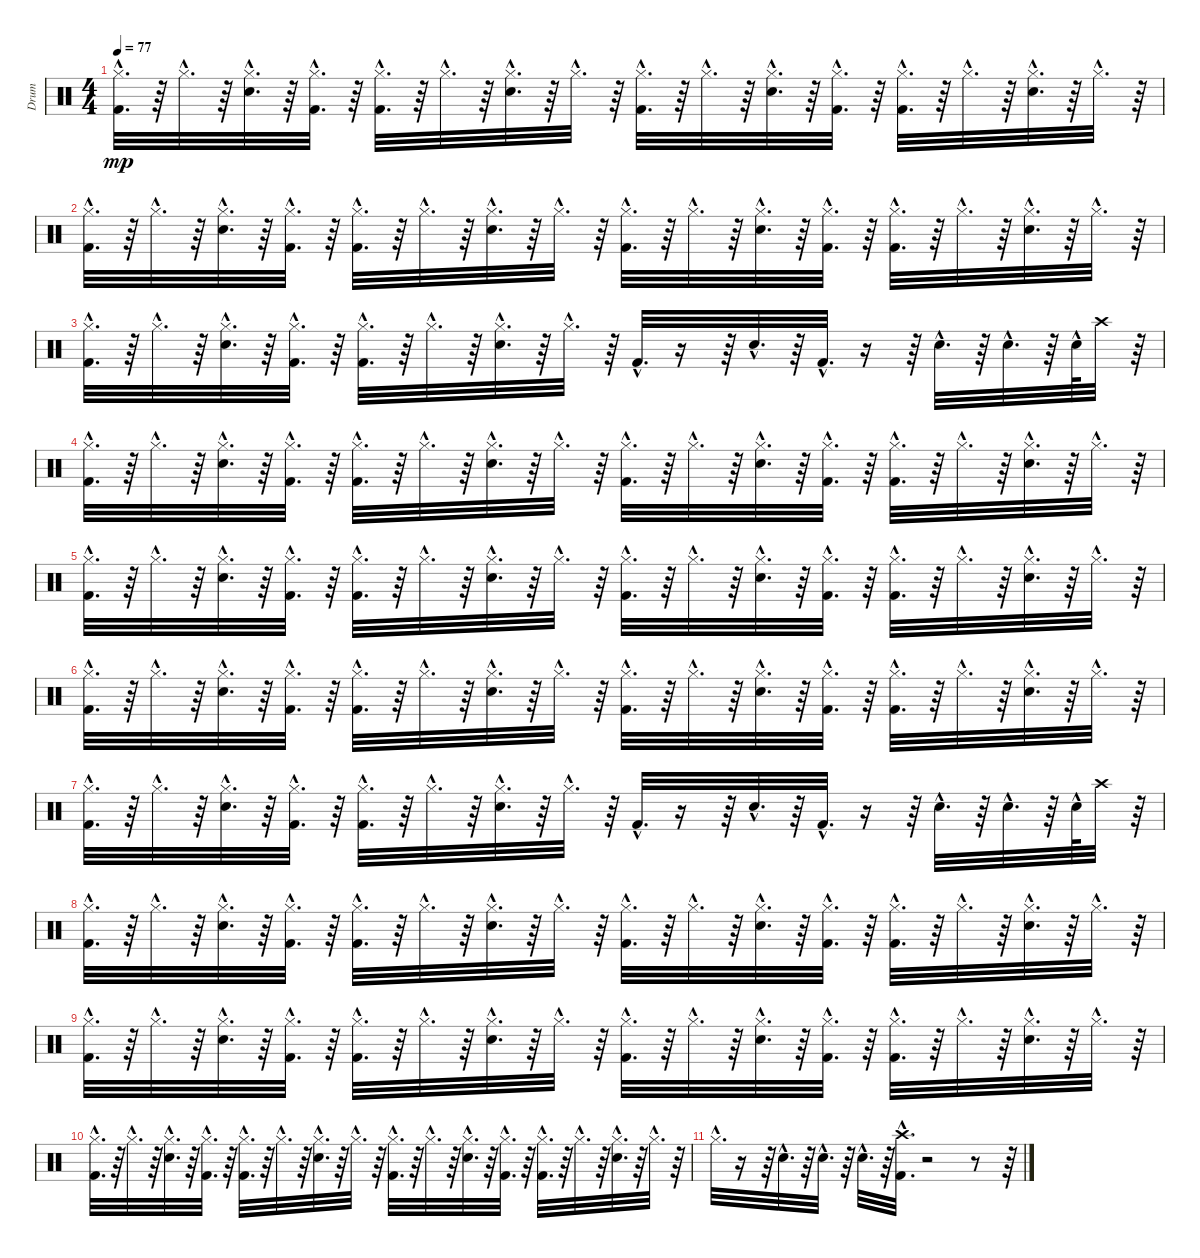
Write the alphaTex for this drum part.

\track ("Drum" "Drum") {instrument percussion}
\staff {score}
\articulation defaults
\ts (4 4)
\tempo 77
\clef neutral
\ks c
("Kick (hit) 2"{hac} "Hi-Hat (closed)"{hac}).32{d dy mp} r.64 "Hi-Hat (closed)"{hac}.32{d} r.64 ("Hi-Hat (closed)"{hac} "Snare (hit) 2"{hac}).32{d} r.64 ("Kick (hit) 2"{hac} "Hi-Hat (closed)"{hac}).32{d} r.64 ("Hi-Hat (closed)"{hac} "Kick (hit) 2"{hac}).32{d} r.64 "Hi-Hat (closed)"{hac}.32{d} r.64 ("Hi-Hat (closed)"{hac} "Snare (hit) 2"{hac}).32{d} r.64 "Hi-Hat (closed)"{hac}.32{d} r.64 ("Hi-Hat (closed)"{hac} "Kick (hit) 2"{hac}).32{d} r.64 "Hi-Hat (closed)"{hac}.32{d} r.64 ("Snare (hit) 2"{hac} "Hi-Hat (closed)"{hac}).32{d} r.64 ("Kick (hit) 2"{hac} "Hi-Hat (closed)"{hac}).32{d} r.64 ("Kick (hit) 2"{hac} "Hi-Hat (closed)"{hac}).32{d} r.64 "Hi-Hat (closed)"{hac}.32{d} r.64 ("Snare (hit) 2"{hac} "Hi-Hat (closed)"{hac}).32{d} r.64 "Hi-Hat (closed)"{hac}.32{d} r.64 |
("Hi-Hat (closed)"{hac} "Kick (hit) 2"{hac}).32{d} r.64 "Hi-Hat (closed)"{hac}.32{d} r.64 ("Hi-Hat (closed)"{hac} "Snare (hit) 2"{hac}).32{d} r.64 ("Kick (hit) 2"{hac} "Hi-Hat (closed)"{hac}).32{d} r.64 ("Hi-Hat (closed)"{hac} "Kick (hit) 2"{hac}).32{d} r.64 "Hi-Hat (closed)"{hac}.32{d} r.64 ("Hi-Hat (closed)"{hac} "Snare (hit) 2"{hac}).32{d} r.64 "Hi-Hat (closed)"{hac}.32{d} r.64 ("Hi-Hat (closed)"{hac} "Kick (hit) 2"{hac}).32{d} r.64 "Hi-Hat (closed)"{hac}.32{d} r.64 ("Snare (hit) 2"{hac} "Hi-Hat (closed)"{hac}).32{d} r.64 ("Hi-Hat (closed)"{hac} "Kick (hit) 2"{hac}).32{d} r.64 ("Hi-Hat (closed)"{hac} "Kick (hit) 2"{hac}).32{d} r.64 "Hi-Hat (closed)"{hac}.32{d} r.64 ("Hi-Hat (closed)"{hac} "Snare (hit) 2"{hac}).32{d} r.64 "Hi-Hat (closed)"{hac}.32{d} r.64 |
("Kick (hit) 2"{hac} "Hi-Hat (closed)"{hac}).32{d} r.64 "Hi-Hat (closed)"{hac}.32{d} r.64 ("Hi-Hat (closed)"{hac} "Snare (hit) 2"{hac}).32{d} r.64 ("Kick (hit) 2"{hac} "Hi-Hat (closed)"{hac}).32{d} r.64 ("Kick (hit) 2"{hac} "Hi-Hat (closed)"{hac}).32{d} r.64 "Hi-Hat (closed)"{hac}.32{d} r.64 ("Hi-Hat (closed)"{hac} "Snare (hit) 2"{hac}).32{d} r.64 "Hi-Hat (closed)"{hac}.32{d} r.64 "Kick (hit) 2"{hac}.32{d} r.16 r.64 "Snare (hit) 2"{hac}.32{d} r.64 "Kick (hit) 2"{hac}.32{d} r.16 r.64 "Snare (hit) 2"{hac}.32{d} r.64 "Snare (hit) 2"{hac}.32{d} r.64 "Snare (hit) 2"{hac}.64 "Crash high (hit)".32 r.64 |
("Kick (hit) 2"{hac} "Hi-Hat (closed)"{hac}).32{d} r.64 "Hi-Hat (closed)"{hac}.32{d} r.64 ("Snare (hit) 2"{hac} "Hi-Hat (closed)"{hac}).32{d} r.64 ("Hi-Hat (closed)"{hac} "Kick (hit) 2"{hac}).32{d} r.64 ("Kick (hit) 2"{hac} "Hi-Hat (closed)"{hac}).32{d} r.64 "Hi-Hat (closed)"{hac}.32{d} r.64 ("Hi-Hat (closed)"{hac} "Snare (hit) 2"{hac}).32{d} r.64 "Hi-Hat (closed)"{hac}.32{d} r.64 ("Kick (hit) 2"{hac} "Hi-Hat (closed)"{hac}).32{d} r.64 "Hi-Hat (closed)"{hac}.32{d} r.64 ("Hi-Hat (closed)"{hac} "Snare (hit) 2"{hac}).32{d} r.64 ("Hi-Hat (closed)"{hac} "Kick (hit) 2"{hac}).32{d} r.64 ("Hi-Hat (closed)"{hac} "Kick (hit) 2"{hac}).32{d} r.64 "Hi-Hat (closed)"{hac}.32{d} r.64 ("Snare (hit) 2"{hac} "Hi-Hat (closed)"{hac}).32{d} r.64 "Hi-Hat (closed)"{hac}.32{d} r.64 |
("Kick (hit) 2"{hac} "Hi-Hat (closed)"{hac}).32{d} r.64 "Hi-Hat (closed)"{hac}.32{d} r.64 ("Snare (hit) 2"{hac} "Hi-Hat (closed)"{hac}).32{d} r.64 ("Hi-Hat (closed)"{hac} "Kick (hit) 2"{hac}).32{d} r.64 ("Kick (hit) 2"{hac} "Hi-Hat (closed)"{hac}).32{d} r.64 "Hi-Hat (closed)"{hac}.32{d} r.64 ("Hi-Hat (closed)"{hac} "Snare (hit) 2"{hac}).32{d} r.64 "Hi-Hat (closed)"{hac}.32{d} r.64 ("Kick (hit) 2"{hac} "Hi-Hat (closed)"{hac}).32{d} r.64 "Hi-Hat (closed)"{hac}.32{d} r.64 ("Hi-Hat (closed)"{hac} "Snare (hit) 2"{hac}).32{d} r.64 ("Hi-Hat (closed)"{hac} "Kick (hit) 2"{hac}).32{d} r.64 ("Kick (hit) 2"{hac} "Hi-Hat (closed)"{hac}).32{d} r.64 "Hi-Hat (closed)"{hac}.32{d} r.64 ("Hi-Hat (closed)"{hac} "Snare (hit) 2"{hac}).32{d} r.64 "Hi-Hat (closed)"{hac}.32{d} r.64 |
("Hi-Hat (closed)"{hac} "Kick (hit) 2"{hac}).32{d} r.64 "Hi-Hat (closed)"{hac}.32{d} r.64 ("Hi-Hat (closed)"{hac} "Snare (hit) 2"{hac}).32{d} r.64 ("Kick (hit) 2"{hac} "Hi-Hat (closed)"{hac}).32{d} r.64 ("Hi-Hat (closed)"{hac} "Kick (hit) 2"{hac}).32{d} r.64 "Hi-Hat (closed)"{hac}.32{d} r.64 ("Snare (hit) 2"{hac} "Hi-Hat (closed)"{hac}).32{d} r.64 "Hi-Hat (closed)"{hac}.32{d} r.64 ("Kick (hit) 2"{hac} "Hi-Hat (closed)"{hac}).32{d} r.64 "Hi-Hat (closed)"{hac}.32{d} r.64 ("Snare (hit) 2"{hac} "Hi-Hat (closed)"{hac}).32{d} r.64 ("Kick (hit) 2"{hac} "Hi-Hat (closed)"{hac}).32{d} r.64 ("Kick (hit) 2"{hac} "Hi-Hat (closed)"{hac}).32{d} r.64 "Hi-Hat (closed)"{hac}.32{d} r.64 ("Hi-Hat (closed)"{hac} "Snare (hit) 2"{hac}).32{d} r.64 "Hi-Hat (closed)"{hac}.32{d} r.64 |
("Hi-Hat (closed)"{hac} "Kick (hit) 2"{hac}).32{d} r.64 "Hi-Hat (closed)"{hac}.32{d} r.64 ("Hi-Hat (closed)"{hac} "Snare (hit) 2"{hac}).32{d} r.64 ("Hi-Hat (closed)"{hac} "Kick (hit) 2"{hac}).32{d} r.64 ("Hi-Hat (closed)"{hac} "Kick (hit) 2"{hac}).32{d} r.64 "Hi-Hat (closed)"{hac}.32{d} r.64 ("Hi-Hat (closed)"{hac} "Snare (hit) 2"{hac}).32{d} r.64 "Hi-Hat (closed)"{hac}.32{d} r.64 "Kick (hit) 2"{hac}.32{d} r.16 r.64 "Snare (hit) 2"{hac}.32{d} r.64 "Kick (hit) 2"{hac}.32{d} r.16 r.64 "Snare (hit) 2"{hac}.32{d} r.64 "Snare (hit) 2"{hac}.32{d} r.64 "Snare (hit) 2"{hac}.64 "Crash high (hit)".32 r.64 |
("Kick (hit) 2"{hac} "Hi-Hat (closed)"{hac}).32{d} r.64 "Hi-Hat (closed)"{hac}.32{d} r.64 ("Snare (hit) 2"{hac} "Hi-Hat (closed)"{hac}).32{d} r.64 ("Kick (hit) 2"{hac} "Hi-Hat (closed)"{hac}).32{d} r.64 ("Kick (hit) 2"{hac} "Hi-Hat (closed)"{hac}).32{d} r.64 "Hi-Hat (closed)"{hac}.32{d} r.64 ("Hi-Hat (closed)"{hac} "Snare (hit) 2"{hac}).32{d} r.64 "Hi-Hat (closed)"{hac}.32{d} r.64 ("Hi-Hat (closed)"{hac} "Kick (hit) 2"{hac}).32{d} r.64 "Hi-Hat (closed)"{hac}.32{d} r.64 ("Snare (hit) 2"{hac} "Hi-Hat (closed)"{hac}).32{d} r.64 ("Hi-Hat (closed)"{hac} "Kick (hit) 2"{hac}).32{d} r.64 ("Hi-Hat (closed)"{hac} "Kick (hit) 2"{hac}).32{d} r.64 "Hi-Hat (closed)"{hac}.32{d} r.64 ("Snare (hit) 2"{hac} "Hi-Hat (closed)"{hac}).32{d} r.64 "Hi-Hat (closed)"{hac}.32{d} r.64 |
("Hi-Hat (closed)"{hac} "Kick (hit) 2"{hac}).32{d} r.64 "Hi-Hat (closed)"{hac}.32{d} r.64 ("Hi-Hat (closed)"{hac} "Snare (hit) 2"{hac}).32{d} r.64 ("Hi-Hat (closed)"{hac} "Kick (hit) 2"{hac}).32{d} r.64 ("Kick (hit) 2"{hac} "Hi-Hat (closed)"{hac}).32{d} r.64 "Hi-Hat (closed)"{hac}.32{d} r.64 ("Hi-Hat (closed)"{hac} "Snare (hit) 2"{hac}).32{d} r.64 "Hi-Hat (closed)"{hac}.32{d} r.64 ("Hi-Hat (closed)"{hac} "Kick (hit) 2"{hac}).32{d} r.64 "Hi-Hat (closed)"{hac}.32{d} r.64 ("Snare (hit) 2"{hac} "Hi-Hat (closed)"{hac}).32{d} r.64 ("Kick (hit) 2"{hac} "Hi-Hat (closed)"{hac}).32{d} r.64 ("Hi-Hat (closed)"{hac} "Kick (hit) 2"{hac}).32{d} r.64 "Hi-Hat (closed)"{hac}.32{d} r.64 ("Hi-Hat (closed)"{hac} "Snare (hit) 2"{hac}).32{d} r.64 "Hi-Hat (closed)"{hac}.32{d} r.64 |
("Kick (hit) 2"{hac} "Hi-Hat (closed)"{hac}).32{d} r.64 "Hi-Hat (closed)"{hac}.32{d} r.64 ("Hi-Hat (closed)"{hac} "Snare (hit) 2"{hac}).32{d} r.64 ("Kick (hit) 2"{hac} "Hi-Hat (closed)"{hac}).32{d} r.64 ("Hi-Hat (closed)"{hac} "Kick (hit) 2"{hac}).32{d} r.64 "Hi-Hat (closed)"{hac}.32{d} r.64 ("Hi-Hat (closed)"{hac} "Snare (hit) 2"{hac}).32{d} r.64 "Hi-Hat (closed)"{hac}.32{d} r.64 ("Kick (hit) 2"{hac} "Hi-Hat (closed)"{hac}).32{d} r.64 "Hi-Hat (closed)"{hac}.32{d} r.64 ("Snare (hit) 2"{hac} "Hi-Hat (closed)"{hac}).32{d} r.64 ("Kick (hit) 2"{hac} "Hi-Hat (closed)"{hac}).32{d} r.64 ("Kick (hit) 2"{hac} "Hi-Hat (closed)"{hac}).32{d} r.64 "Hi-Hat (closed)"{hac}.32{d} r.64 ("Hi-Hat (closed)"{hac} "Snare (hit) 2"{hac}).32{d} r.64 "Hi-Hat (closed)"{hac}.32{d} r.64 |
"Hi-Hat (closed)"{hac}.32{d} r.16 r.64 "Electric Snare (hit)"{hac}.32{d} r.64 "Electric Snare (hit)"{hac}.32{d} r.64 "Electric Snare (hit)"{hac}.32{d} r.64 ("Kick (hit) 2"{hac} "Crash high (hit)"{hac}).32{d} r.2 r.8 r.64
